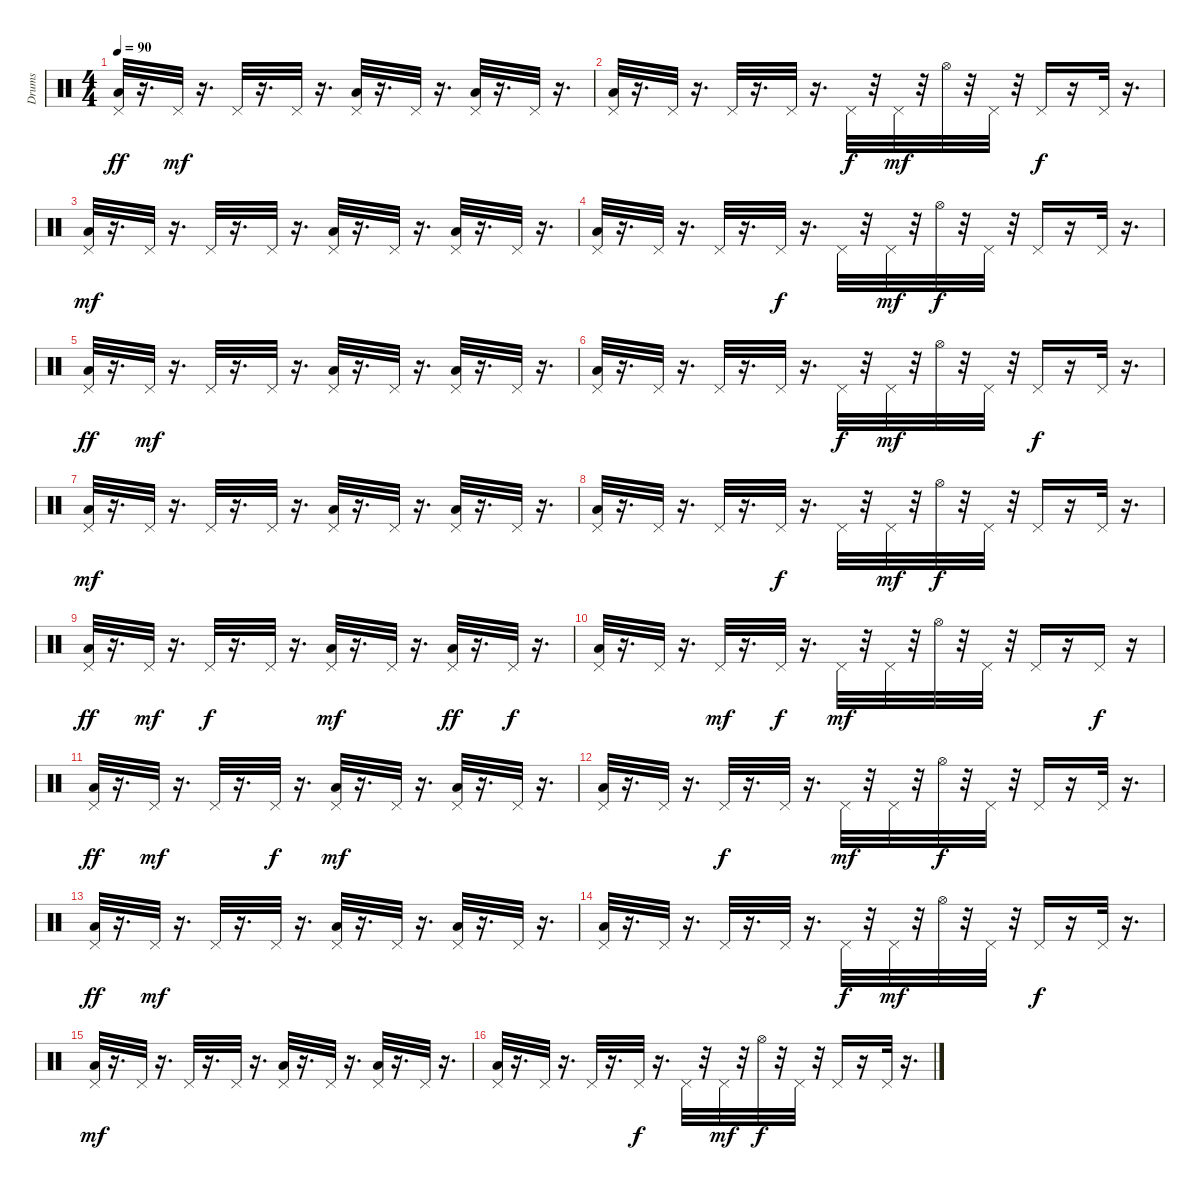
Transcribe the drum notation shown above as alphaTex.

\track ("Drums" "Drums") {instrument percussion}
\staff {score}
\articulation defaults
\ts (4 4)
\tempo 90
\clef neutral
\ks c
("Low Tom (hit)" "Pedal Hi-Hat (hit)").32{dy ff} r.16{d} "Pedal Hi-Hat (hit)".32{dy mf} r.16{d} "Pedal Hi-Hat (hit)".32 r.16{d} "Pedal Hi-Hat (hit)".32 r.16{d} ("Low Tom (hit)" "Pedal Hi-Hat (hit)").32 r.16{d} "Pedal Hi-Hat (hit)".32 r.16{d} ("Low Tom (hit)" "Pedal Hi-Hat (hit)").32 r.16{d} "Pedal Hi-Hat (hit)".32 r.16{d} |
("Low Tom (hit)" "Pedal Hi-Hat (hit)").32 r.16{d} "Pedal Hi-Hat (hit)".32 r.16{d} "Pedal Hi-Hat (hit)".32 r.16{d} "Pedal Hi-Hat (hit)".32 r.16{d} "Pedal Hi-Hat (hit)".32{dy f} r.32 "Pedal Hi-Hat (hit)".32{dy mf} r.32 "Hi-Hat (open)".32 r.32 "Pedal Hi-Hat (hit)".32 r.32 "Pedal Hi-Hat (hit)".16{dy f} r.16 "Pedal Hi-Hat (hit)".32 r.16{d} |
("Low Tom (hit)" "Pedal Hi-Hat (hit)").32{dy mf} r.16{d} "Pedal Hi-Hat (hit)".32 r.16{d} "Pedal Hi-Hat (hit)".32 r.16{d} "Pedal Hi-Hat (hit)".32 r.16{d} ("Low Tom (hit)" "Pedal Hi-Hat (hit)").32 r.16{d} "Pedal Hi-Hat (hit)".32 r.16{d} ("Low Tom (hit)" "Pedal Hi-Hat (hit)").32 r.16{d} "Pedal Hi-Hat (hit)".32 r.16{d} |
("Low Tom (hit)" "Pedal Hi-Hat (hit)").32 r.16{d} "Pedal Hi-Hat (hit)".32 r.16{d} "Pedal Hi-Hat (hit)".32 r.16{d} "Pedal Hi-Hat (hit)".32{dy f} r.16{d} "Pedal Hi-Hat (hit)".32 r.32 "Pedal Hi-Hat (hit)".32{dy mf} r.32 "Hi-Hat (open)".32{dy f} r.32 "Pedal Hi-Hat (hit)".32 r.32 "Pedal Hi-Hat (hit)".16 r.16 "Pedal Hi-Hat (hit)".32 r.16{d} |
("Low Tom (hit)" "Pedal Hi-Hat (hit)").32{dy ff volume 12} r.16{d} "Pedal Hi-Hat (hit)".32{dy mf} r.16{d} "Pedal Hi-Hat (hit)".32 r.16{d} "Pedal Hi-Hat (hit)".32 r.16{d} ("Low Tom (hit)" "Pedal Hi-Hat (hit)").32 r.16{d} "Pedal Hi-Hat (hit)".32 r.16{d} ("Low Tom (hit)" "Pedal Hi-Hat (hit)").32 r.16{d} "Pedal Hi-Hat (hit)".32 r.16{d} |
("Low Tom (hit)" "Pedal Hi-Hat (hit)").32 r.16{d} "Pedal Hi-Hat (hit)".32 r.16{d} "Pedal Hi-Hat (hit)".32 r.16{d} "Pedal Hi-Hat (hit)".32 r.16{d} "Pedal Hi-Hat (hit)".32{dy f} r.32 "Pedal Hi-Hat (hit)".32{dy mf} r.32 "Hi-Hat (open)".32 r.32 "Pedal Hi-Hat (hit)".32 r.32 "Pedal Hi-Hat (hit)".16{dy f} r.16 "Pedal Hi-Hat (hit)".32 r.16{d} |
("Low Tom (hit)" "Pedal Hi-Hat (hit)").32{dy mf} r.16{d} "Pedal Hi-Hat (hit)".32 r.16{d} "Pedal Hi-Hat (hit)".32 r.16{d} "Pedal Hi-Hat (hit)".32 r.16{d} ("Low Tom (hit)" "Pedal Hi-Hat (hit)").32 r.16{d} "Pedal Hi-Hat (hit)".32 r.16{d} ("Low Tom (hit)" "Pedal Hi-Hat (hit)").32 r.16{d} "Pedal Hi-Hat (hit)".32 r.16{d} |
("Low Tom (hit)" "Pedal Hi-Hat (hit)").32 r.16{d} "Pedal Hi-Hat (hit)".32 r.16{d} "Pedal Hi-Hat (hit)".32 r.16{d} "Pedal Hi-Hat (hit)".32{dy f} r.16{d} "Pedal Hi-Hat (hit)".32 r.32 "Pedal Hi-Hat (hit)".32{dy mf} r.32 "Hi-Hat (open)".32{dy f} r.32 "Pedal Hi-Hat (hit)".32 r.32 "Pedal Hi-Hat (hit)".16 r.16 "Pedal Hi-Hat (hit)".32 r.16{d} |
("Low Tom (hit)" "Pedal Hi-Hat (hit)").32{dy ff} r.16{d} "Pedal Hi-Hat (hit)".32{dy mf} r.16{d} "Pedal Hi-Hat (hit)".32{dy f} r.16{d} "Pedal Hi-Hat (hit)".32 r.16{d} ("Low Tom (hit)" "Pedal Hi-Hat (hit)").32{dy mf} r.16{d} "Pedal Hi-Hat (hit)".32 r.16{d} ("Low Tom (hit)" "Pedal Hi-Hat (hit)").32{dy ff} r.16{d} "Pedal Hi-Hat (hit)".32{dy f} r.16{d} |
("Low Tom (hit)" "Pedal Hi-Hat (hit)").32 r.16{d} "Pedal Hi-Hat (hit)".32 r.16{d} "Pedal Hi-Hat (hit)".32{dy mf} r.16{d} "Pedal Hi-Hat (hit)".32{dy f} r.16{d} "Pedal Hi-Hat (hit)".32{dy mf} r.32 "Pedal Hi-Hat (hit)".32 r.32 "Hi-Hat (open)".32 r.32 "Pedal Hi-Hat (hit)".32 r.32 "Pedal Hi-Hat (hit)".16 r.16 "Pedal Hi-Hat (hit)".16{dy f} r.16 |
("Low Tom (hit)" "Pedal Hi-Hat (hit)").32{dy ff} r.16{d} "Pedal Hi-Hat (hit)".32{dy mf} r.16{d} "Pedal Hi-Hat (hit)".32 r.16{d} "Pedal Hi-Hat (hit)".32{dy f} r.16{d} ("Low Tom (hit)" "Pedal Hi-Hat (hit)").32{dy mf} r.16{d} "Pedal Hi-Hat (hit)".32 r.16{d} ("Low Tom (hit)" "Pedal Hi-Hat (hit)").32 r.16{d} "Pedal Hi-Hat (hit)".32 r.16{d} |
("Low Tom (hit)" "Pedal Hi-Hat (hit)").32 r.16{d} "Pedal Hi-Hat (hit)".32 r.16{d} "Pedal Hi-Hat (hit)".32{dy f} r.16{d} "Pedal Hi-Hat (hit)".32 r.16{d} "Pedal Hi-Hat (hit)".32{dy mf} r.32 "Pedal Hi-Hat (hit)".32 r.32 "Hi-Hat (open)".32{dy f} r.32 "Pedal Hi-Hat (hit)".32 r.32 "Pedal Hi-Hat (hit)".16 r.16 "Pedal Hi-Hat (hit)".32 r.16{d} |
("Low Tom (hit)" "Pedal Hi-Hat (hit)").32{dy ff} r.16{d} "Pedal Hi-Hat (hit)".32{dy mf} r.16{d} "Pedal Hi-Hat (hit)".32 r.16{d} "Pedal Hi-Hat (hit)".32 r.16{d} ("Low Tom (hit)" "Pedal Hi-Hat (hit)").32 r.16{d} "Pedal Hi-Hat (hit)".32 r.16{d} ("Low Tom (hit)" "Pedal Hi-Hat (hit)").32 r.16{d} "Pedal Hi-Hat (hit)".32 r.16{d} |
("Low Tom (hit)" "Pedal Hi-Hat (hit)").32 r.16{d} "Pedal Hi-Hat (hit)".32 r.16{d} "Pedal Hi-Hat (hit)".32 r.16{d} "Pedal Hi-Hat (hit)".32 r.16{d} "Pedal Hi-Hat (hit)".32{dy f} r.32 "Pedal Hi-Hat (hit)".32{dy mf} r.32 "Hi-Hat (open)".32 r.32 "Pedal Hi-Hat (hit)".32 r.32 "Pedal Hi-Hat (hit)".16{dy f} r.16 "Pedal Hi-Hat (hit)".32 r.16{d} |
("Low Tom (hit)" "Pedal Hi-Hat (hit)").32{dy mf} r.16{d} "Pedal Hi-Hat (hit)".32 r.16{d} "Pedal Hi-Hat (hit)".32 r.16{d} "Pedal Hi-Hat (hit)".32 r.16{d} ("Low Tom (hit)" "Pedal Hi-Hat (hit)").32 r.16{d} "Pedal Hi-Hat (hit)".32 r.16{d} ("Low Tom (hit)" "Pedal Hi-Hat (hit)").32 r.16{d} "Pedal Hi-Hat (hit)".32 r.16{d} |
("Low Tom (hit)" "Pedal Hi-Hat (hit)").32 r.16{d} "Pedal Hi-Hat (hit)".32 r.16{d} "Pedal Hi-Hat (hit)".32 r.16{d} "Pedal Hi-Hat (hit)".32{dy f} r.16{d} "Pedal Hi-Hat (hit)".32 r.32 "Pedal Hi-Hat (hit)".32{dy mf} r.32 "Hi-Hat (open)".32{dy f} r.32 "Pedal Hi-Hat (hit)".32 r.32 "Pedal Hi-Hat (hit)".16 r.16 "Pedal Hi-Hat (hit)".32 r.16{d}
